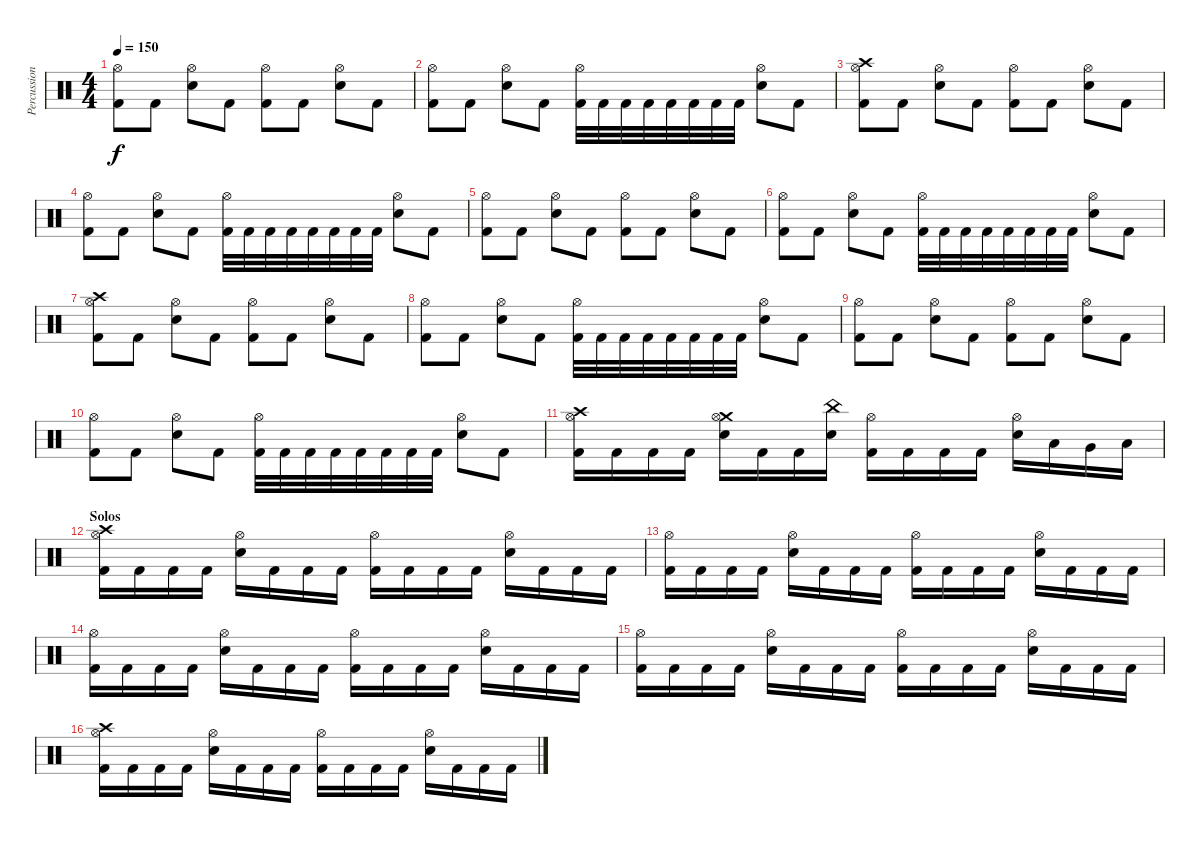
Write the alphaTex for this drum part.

\track ("Percussions" "Percussion") {instrument percussion}
\staff {score}
\articulation defaults
\ts (4 4)
\tempo 150
\clef neutral
\ks c
("Hi-Hat (open)" "Kick (hit) 2").8{dy f} "Kick (hit) 2".8 ("Hi-Hat (open)" "Electric Snare (hit)").8 "Kick (hit) 2".8 ("Hi-Hat (open)" "Kick (hit) 2").8 "Kick (hit) 2".8 ("Hi-Hat (open)" "Electric Snare (hit)").8 "Kick (hit) 2".8 |
("Hi-Hat (open)" "Kick (hit) 2").8 "Kick (hit) 2".8 ("Hi-Hat (open)" "Electric Snare (hit)").8 "Kick (hit) 2".8 ("Hi-Hat (open)" "Kick (hit) 2").32 "Kick (hit) 2".32 "Kick (hit) 2".32 "Kick (hit) 2".32 "Kick (hit) 2".32 "Kick (hit) 2".32 "Kick (hit) 2".32 "Kick (hit) 2".32 ("Hi-Hat (open)" "Electric Snare (hit)").8 "Kick (hit) 2".8 |
("Crash high (hit)" "Hi-Hat (open)" "Kick (hit) 2").8 "Kick (hit) 2".8 ("Hi-Hat (open)" "Electric Snare (hit)").8 "Kick (hit) 2".8 ("Hi-Hat (open)" "Kick (hit) 2").8 "Kick (hit) 2".8 ("Hi-Hat (open)" "Electric Snare (hit)").8 "Kick (hit) 2".8 |
("Hi-Hat (open)" "Kick (hit) 2").8 "Kick (hit) 2".8 ("Hi-Hat (open)" "Electric Snare (hit)").8 "Kick (hit) 2".8 ("Hi-Hat (open)" "Kick (hit) 2").32 "Kick (hit) 2".32 "Kick (hit) 2".32 "Kick (hit) 2".32 "Kick (hit) 2".32 "Kick (hit) 2".32 "Kick (hit) 2".32 "Kick (hit) 2".32 ("Hi-Hat (open)" "Electric Snare (hit)").8 "Kick (hit) 2".8 |
("Hi-Hat (open)" "Kick (hit) 2").8 "Kick (hit) 2".8 ("Hi-Hat (open)" "Electric Snare (hit)").8 "Kick (hit) 2".8 ("Hi-Hat (open)" "Kick (hit) 2").8 "Kick (hit) 2".8 ("Hi-Hat (open)" "Electric Snare (hit)").8 "Kick (hit) 2".8 |
("Hi-Hat (open)" "Kick (hit) 2").8 "Kick (hit) 2".8 ("Hi-Hat (open)" "Electric Snare (hit)").8 "Kick (hit) 2".8 ("Hi-Hat (open)" "Kick (hit) 2").32 "Kick (hit) 2".32 "Kick (hit) 2".32 "Kick (hit) 2".32 "Kick (hit) 2".32 "Kick (hit) 2".32 "Kick (hit) 2".32 "Kick (hit) 2".32 ("Hi-Hat (open)" "Electric Snare (hit)").8 "Kick (hit) 2".8 |
("Crash high (hit)" "Hi-Hat (open)" "Kick (hit) 2").8 "Kick (hit) 2".8 ("Hi-Hat (open)" "Electric Snare (hit)").8 "Kick (hit) 2".8 ("Hi-Hat (open)" "Kick (hit) 2").8 "Kick (hit) 2".8 ("Hi-Hat (open)" "Electric Snare (hit)").8 "Kick (hit) 2".8 |
("Hi-Hat (open)" "Kick (hit) 2").8 "Kick (hit) 2".8 ("Hi-Hat (open)" "Electric Snare (hit)").8 "Kick (hit) 2".8 ("Hi-Hat (open)" "Kick (hit) 2").32 "Kick (hit) 2".32 "Kick (hit) 2".32 "Kick (hit) 2".32 "Kick (hit) 2".32 "Kick (hit) 2".32 "Kick (hit) 2".32 "Kick (hit) 2".32 ("Hi-Hat (open)" "Electric Snare (hit)").8 "Kick (hit) 2".8 |
("Hi-Hat (open)" "Kick (hit) 2").8 "Kick (hit) 2".8 ("Hi-Hat (open)" "Electric Snare (hit)").8 "Kick (hit) 2".8 ("Hi-Hat (open)" "Kick (hit) 2").8 "Kick (hit) 2".8 ("Hi-Hat (open)" "Electric Snare (hit)").8 "Kick (hit) 2".8 |
("Hi-Hat (open)" "Kick (hit) 2").8 "Kick (hit) 2".8 ("Hi-Hat (open)" "Electric Snare (hit)").8 "Kick (hit) 2".8 ("Hi-Hat (open)" "Kick (hit) 2").32 "Kick (hit) 2".32 "Kick (hit) 2".32 "Kick (hit) 2".32 "Kick (hit) 2".32 "Kick (hit) 2".32 "Kick (hit) 2".32 "Kick (hit) 2".32 ("Hi-Hat (open)" "Electric Snare (hit)").8 "Kick (hit) 2".8 |
("Crash high (hit)" "Hi-Hat (open)" "Kick (hit) 2").16 "Kick (hit) 2".16 "Kick (hit) 2".16 "Kick (hit) 2".16 ("Crash medium (hit)" "Hi-Hat (open)" "Electric Snare (hit)").16 "Kick (hit) 2".16 "Kick (hit) 2".16 ("China (hit)" "Electric Snare (hit)").16 ("Hi-Hat (open)" "Kick (hit) 2").16 "Kick (hit) 2".16 "Kick (hit) 2".16 "Kick (hit) 2".16 ("Hi-Hat (open)" "Electric Snare (hit)").16 "Low Tom (hit)".16 "Very Low Tom (hit)".16 "Low Floor Tom (hit)".16 |
\section ("" "Solos")
("Crash high (hit)" "Hi-Hat (open)" "Kick (hit) 2").16 "Kick (hit) 2".16 "Kick (hit) 2".16 "Kick (hit) 2".16 ("Hi-Hat (open)" "Electric Snare (hit)").16 "Kick (hit) 2".16 "Kick (hit) 2".16 "Kick (hit) 2".16 ("Hi-Hat (open)" "Kick (hit) 2").16 "Kick (hit) 2".16 "Kick (hit) 2".16 "Kick (hit) 2".16 ("Hi-Hat (open)" "Electric Snare (hit)").16 "Kick (hit) 2".16 "Kick (hit) 2".16 "Kick (hit) 2".16 |
("Hi-Hat (open)" "Kick (hit) 2").16 "Kick (hit) 2".16 "Kick (hit) 2".16 "Kick (hit) 2".16 ("Hi-Hat (open)" "Electric Snare (hit)").16 "Kick (hit) 2".16 "Kick (hit) 2".16 "Kick (hit) 2".16 ("Hi-Hat (open)" "Kick (hit) 2").16 "Kick (hit) 2".16 "Kick (hit) 2".16 "Kick (hit) 2".16 ("Hi-Hat (open)" "Electric Snare (hit)").16 "Kick (hit) 2".16 "Kick (hit) 2".16 "Kick (hit) 2".16 |
("Hi-Hat (open)" "Kick (hit) 2").16 "Kick (hit) 2".16 "Kick (hit) 2".16 "Kick (hit) 2".16 ("Hi-Hat (open)" "Electric Snare (hit)").16 "Kick (hit) 2".16 "Kick (hit) 2".16 "Kick (hit) 2".16 ("Hi-Hat (open)" "Kick (hit) 2").16 "Kick (hit) 2".16 "Kick (hit) 2".16 "Kick (hit) 2".16 ("Hi-Hat (open)" "Electric Snare (hit)").16 "Kick (hit) 2".16 "Kick (hit) 2".16 "Kick (hit) 2".16 |
("Hi-Hat (open)" "Kick (hit) 2").16 "Kick (hit) 2".16 "Kick (hit) 2".16 "Kick (hit) 2".16 ("Hi-Hat (open)" "Electric Snare (hit)").16 "Kick (hit) 2".16 "Kick (hit) 2".16 "Kick (hit) 2".16 ("Hi-Hat (open)" "Kick (hit) 2").16 "Kick (hit) 2".16 "Kick (hit) 2".16 "Kick (hit) 2".16 ("Hi-Hat (open)" "Electric Snare (hit)").16 "Kick (hit) 2".16 "Kick (hit) 2".16 "Kick (hit) 2".16 |
("Crash high (hit)" "Hi-Hat (open)" "Kick (hit) 2").16 "Kick (hit) 2".16 "Kick (hit) 2".16 "Kick (hit) 2".16 ("Hi-Hat (open)" "Electric Snare (hit)").16 "Kick (hit) 2".16 "Kick (hit) 2".16 "Kick (hit) 2".16 ("Hi-Hat (open)" "Kick (hit) 2").16 "Kick (hit) 2".16 "Kick (hit) 2".16 "Kick (hit) 2".16 ("Hi-Hat (open)" "Electric Snare (hit)").16 "Kick (hit) 2".16 "Kick (hit) 2".16 "Kick (hit) 2".16
